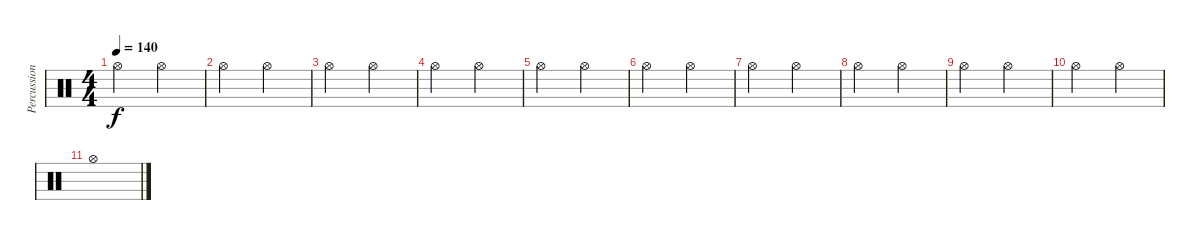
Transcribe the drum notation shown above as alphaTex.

\track ("Percussions" "Percussion") {instrument percussion}
\staff {score}
\articulation defaults
\ts (4 4)
\tempo 140
\clef neutral
\ks c "Hi-Hat (open)".2{dy f} "Hi-Hat (open)".2
|
"Hi-Hat (open)".2 "Hi-Hat (open)".2 |
"Hi-Hat (open)".2 "Hi-Hat (open)".2 |
"Hi-Hat (open)".2 "Hi-Hat (open)".2 |
"Hi-Hat (open)".2 "Hi-Hat (open)".2 |
"Hi-Hat (open)".2 "Hi-Hat (open)".2 |
"Hi-Hat (open)".2 "Hi-Hat (open)".2 |
"Hi-Hat (open)".2 "Hi-Hat (open)".2 |
"Hi-Hat (open)".2 "Hi-Hat (open)".2 |
"Hi-Hat (open)".2 "Hi-Hat (open)".2 |
"Hi-Hat (open)".1
